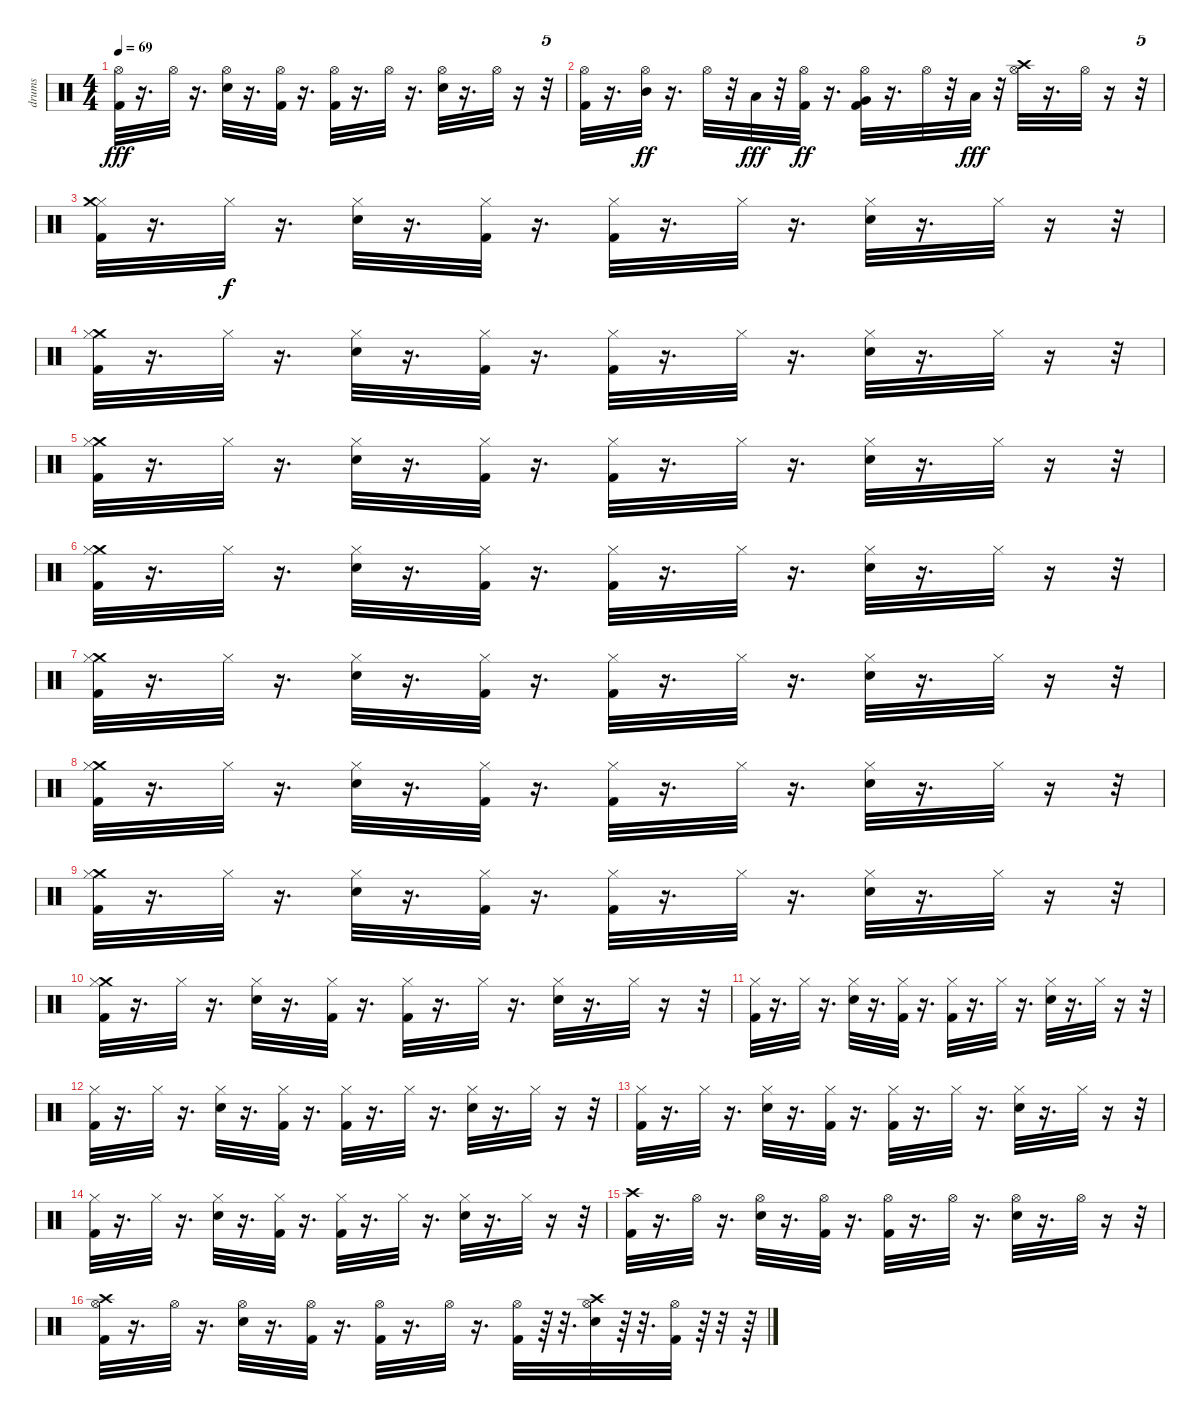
\track ("drums" "drums") {instrument percussion}
\staff {score}
\articulation defaults
\ts (4 4)
\tempo 69
\clef neutral
\ks c
("Kick (hit) 2" "Hi-Hat (open)").32{dy fff} r.16{d} "Hi-Hat (open)".32 r.16{d} ("Snare (hit) 2" "Hi-Hat (open)").32 r.16{d} ("Kick (hit) 2" "Hi-Hat (open)").32 r.16{d} ("Kick (hit) 2" "Hi-Hat (open)").32 r.16{d} "Hi-Hat (open)".32 r.16{d} ("Snare (hit) 2" "Hi-Hat (open)").32 r.16{d} "Hi-Hat (open)".32 r.16 r.32{tu (5 4)} |
("Kick (hit) 2" "Hi-Hat (open)").32 r.16{d} ("Mid Tom (hit)" "Hi-Hat (open)").32{dy ff} r.16{d} "Hi-Hat (open)".32 r.32 "Low Tom (hit)".32{dy fff} r.32 ("Kick (hit) 2" "Hi-Hat (open)").32{dy ff} r.16{d} ("Kick (hit) 2" "Very Low Tom (hit)" "Hi-Hat (open)").32 r.16{d} "Hi-Hat (open)".32 r.32 "Low Floor Tom (hit)".32{dy fff} r.32 ("Hi-Hat (open)" "Crash high (hit)").32 r.16{d} "Hi-Hat (open)".32 r.16 r.32{tu (5 4)} |
("Hi-Hat (closed)" "Kick (hit) 2" "Crash medium (hit)").32 r.16{d} "Hi-Hat (closed)".32{dy f} r.16{d} ("Hi-Hat (closed)" "Snare (hit) 2").32 r.16{d} ("Hi-Hat (closed)" "Kick (hit) 2").32 r.16{d} ("Hi-Hat (closed)" "Kick (hit) 2").32 r.16{d} "Hi-Hat (closed)".32 r.16{d} ("Snare (hit) 2" "Hi-Hat (closed)").32 r.16{d} "Hi-Hat (closed)".32 r.16 r.32{tu (5 4)} |
("Crash medium (hit)" "Hi-Hat (closed)" "Kick (hit) 2").32 r.16{d} "Hi-Hat (closed)".32 r.16{d} ("Snare (hit) 2" "Hi-Hat (closed)").32 r.16{d} ("Hi-Hat (closed)" "Kick (hit) 2").32 r.16{d} ("Hi-Hat (closed)" "Kick (hit) 2").32 r.16{d} "Hi-Hat (closed)".32 r.16{d} ("Snare (hit) 2" "Hi-Hat (closed)").32 r.16{d} "Hi-Hat (closed)".32 r.16 r.32{tu (5 4)} |
("Crash medium (hit)" "Hi-Hat (closed)" "Kick (hit) 2").32 r.16{d} "Hi-Hat (closed)".32 r.16{d} ("Snare (hit) 2" "Hi-Hat (closed)").32 r.16{d} ("Hi-Hat (closed)" "Kick (hit) 2").32 r.16{d} ("Hi-Hat (closed)" "Kick (hit) 2").32 r.16{d} "Hi-Hat (closed)".32 r.16{d} ("Snare (hit) 2" "Hi-Hat (closed)").32 r.16{d} "Hi-Hat (closed)".32 r.16 r.32{tu (5 4)} |
("Crash medium (hit)" "Hi-Hat (closed)" "Kick (hit) 2").32 r.16{d} "Hi-Hat (closed)".32 r.16{d} ("Snare (hit) 2" "Hi-Hat (closed)").32 r.16{d} ("Hi-Hat (closed)" "Kick (hit) 2").32 r.16{d} ("Hi-Hat (closed)" "Kick (hit) 2").32 r.16{d} "Hi-Hat (closed)".32 r.16{d} ("Snare (hit) 2" "Hi-Hat (closed)").32 r.16{d} "Hi-Hat (closed)".32 r.16 r.32{tu (5 4)} |
("Crash medium (hit)" "Hi-Hat (closed)" "Kick (hit) 2").32 r.16{d} "Hi-Hat (closed)".32 r.16{d} ("Snare (hit) 2" "Hi-Hat (closed)").32 r.16{d} ("Hi-Hat (closed)" "Kick (hit) 2").32 r.16{d} ("Hi-Hat (closed)" "Kick (hit) 2").32 r.16{d} "Hi-Hat (closed)".32 r.16{d} ("Snare (hit) 2" "Hi-Hat (closed)").32 r.16{d} "Hi-Hat (closed)".32 r.16 r.32{tu (5 4)} |
("Crash medium (hit)" "Hi-Hat (closed)" "Kick (hit) 2").32 r.16{d} "Hi-Hat (closed)".32 r.16{d} ("Snare (hit) 2" "Hi-Hat (closed)").32 r.16{d} ("Hi-Hat (closed)" "Kick (hit) 2").32 r.16{d} ("Hi-Hat (closed)" "Kick (hit) 2").32 r.16{d} "Hi-Hat (closed)".32 r.16{d} ("Snare (hit) 2" "Hi-Hat (closed)").32 r.16{d} "Hi-Hat (closed)".32 r.16 r.32{tu (5 4)} |
("Crash medium (hit)" "Hi-Hat (closed)" "Kick (hit) 2").32 r.16{d} "Hi-Hat (closed)".32 r.16{d} ("Snare (hit) 2" "Hi-Hat (closed)").32 r.16{d} ("Hi-Hat (closed)" "Kick (hit) 2").32 r.16{d} ("Hi-Hat (closed)" "Kick (hit) 2").32 r.16{d} "Hi-Hat (closed)".32 r.16{d} ("Snare (hit) 2" "Hi-Hat (closed)").32 r.16{d} "Hi-Hat (closed)".32 r.16 r.32{tu (5 4)} |
("Crash medium (hit)" "Hi-Hat (closed)" "Kick (hit) 2").32 r.16{d} "Hi-Hat (closed)".32 r.16{d} ("Snare (hit) 2" "Hi-Hat (closed)").32 r.16{d} ("Hi-Hat (closed)" "Kick (hit) 2").32 r.16{d} ("Hi-Hat (closed)" "Kick (hit) 2").32 r.16{d} "Hi-Hat (closed)".32 r.16{d} ("Snare (hit) 2" "Hi-Hat (closed)").32 r.16{d} "Hi-Hat (closed)".32 r.16 r.32{tu (5 4)} |
("Kick (hit) 2" "Hi-Hat (closed)").32 r.16{d} "Hi-Hat (closed)".32 r.16{d} ("Snare (hit) 2" "Hi-Hat (closed)").32 r.16{d} ("Kick (hit) 2" "Hi-Hat (closed)").32 r.16{d} ("Kick (hit) 2" "Hi-Hat (closed)").32 r.16{d} "Hi-Hat (closed)".32 r.16{d} ("Snare (hit) 2" "Hi-Hat (closed)").32 r.16{d} "Hi-Hat (closed)".32 r.16 r.32{tu (5 4)} |
("Kick (hit) 2" "Hi-Hat (closed)").32 r.16{d} "Hi-Hat (closed)".32 r.16{d} ("Snare (hit) 2" "Hi-Hat (closed)").32 r.16{d} ("Kick (hit) 2" "Hi-Hat (closed)").32 r.16{d} ("Kick (hit) 2" "Hi-Hat (closed)").32 r.16{d} "Hi-Hat (closed)".32 r.16{d} ("Snare (hit) 2" "Hi-Hat (closed)").32 r.16{d} "Hi-Hat (closed)".32 r.16 r.32{tu (5 4)} |
("Kick (hit) 2" "Hi-Hat (closed)").32 r.16{d} "Hi-Hat (closed)".32 r.16{d} ("Snare (hit) 2" "Hi-Hat (closed)").32 r.16{d} ("Kick (hit) 2" "Hi-Hat (closed)").32 r.16{d} ("Kick (hit) 2" "Hi-Hat (closed)").32 r.16{d} "Hi-Hat (closed)".32 r.16{d} ("Snare (hit) 2" "Hi-Hat (closed)").32 r.16{d} "Hi-Hat (closed)".32 r.16 r.32{tu (5 4)} |
("Kick (hit) 2" "Hi-Hat (closed)").32 r.16{d} "Hi-Hat (closed)".32 r.16{d} ("Snare (hit) 2" "Hi-Hat (closed)").32 r.16{d} ("Kick (hit) 2" "Hi-Hat (closed)").32 r.16{d} ("Kick (hit) 2" "Hi-Hat (closed)").32 r.16{d} "Hi-Hat (closed)".32 r.16{d} ("Snare (hit) 2" "Hi-Hat (closed)").32 r.16{d} "Hi-Hat (closed)".32 r.16 r.32{tu (5 4)} |
("Crash high (hit)" "Kick (hit) 2").32 r.16{d} "Hi-Hat (open)".32 r.16{d} ("Snare (hit) 2" "Hi-Hat (open)").32 r.16{d} ("Hi-Hat (open)" "Kick (hit) 2").32 r.16{d} ("Hi-Hat (open)" "Kick (hit) 2").32 r.16{d} "Hi-Hat (open)".32 r.16{d} ("Hi-Hat (open)" "Snare (hit) 2").32 r.16{d} "Hi-Hat (open)".32 r.16 r.32{tu (5 4)} |
("Hi-Hat (open)" "Kick (hit) 2" "Crash high (hit)").32 r.16{d} "Hi-Hat (open)".32 r.16{d} ("Hi-Hat (open)" "Snare (hit) 2").32 r.16{d} ("Hi-Hat (open)" "Kick (hit) 2").32 r.16{d} ("Hi-Hat (open)" "Kick (hit) 2").32 r.16{d} "Hi-Hat (open)".32 r.16{d} ("Hi-Hat (open)" "Kick (hit) 2").32 r.64 r.32{d} ("Crash high (hit)" "Hi-Hat (open)" "Snare (hit) 2").32 r.64 r.32{d} ("Hi-Hat (open)" "Kick (hit) 2").32 r.64 r.32 r.64
